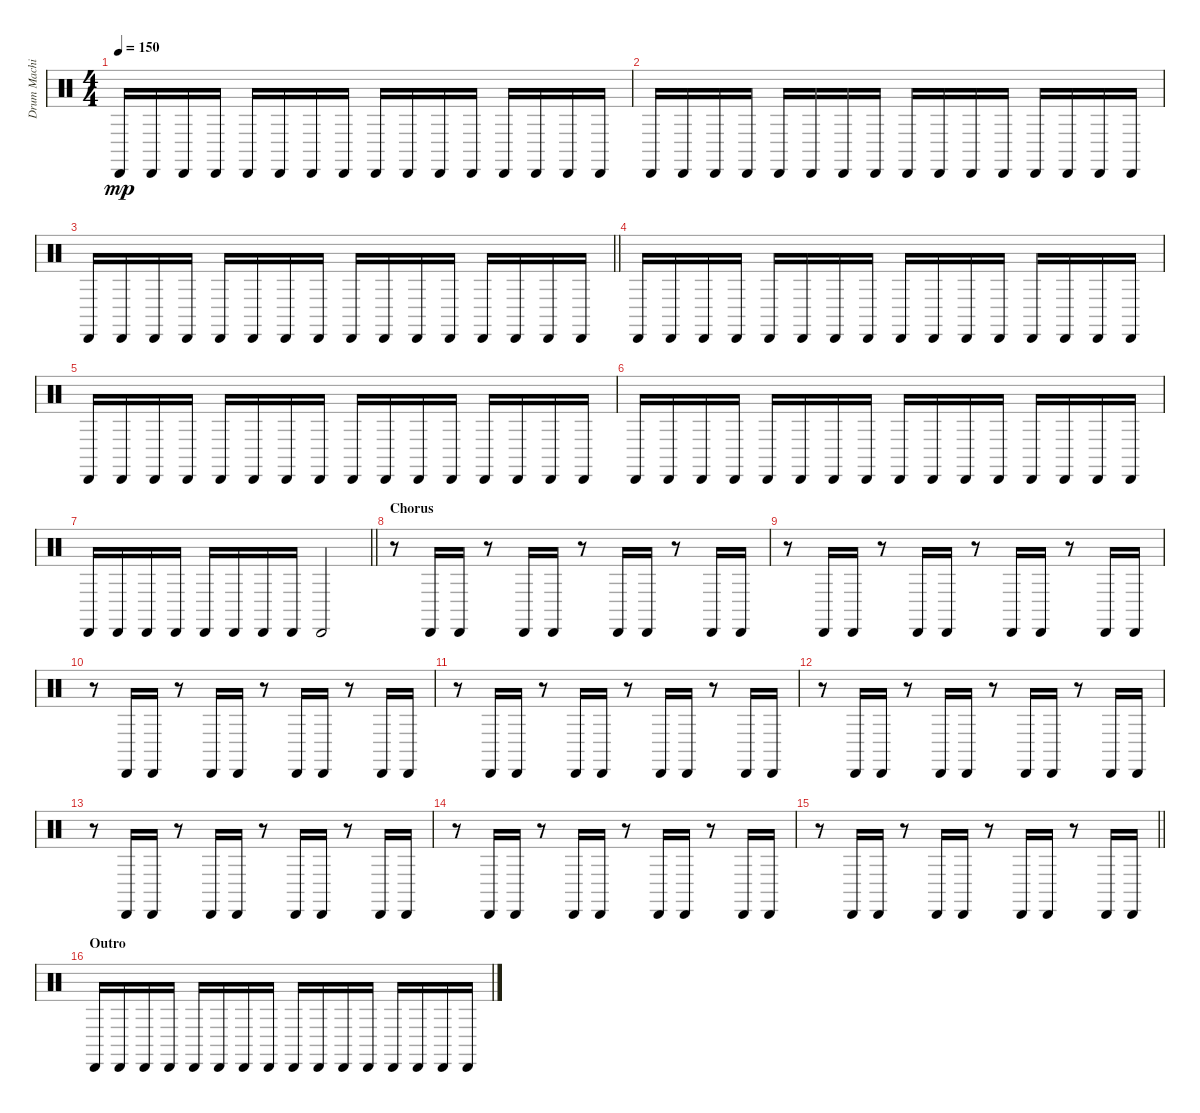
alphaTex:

\track ("Drum Machine" "Drum Machi") {instrument percussion}
\staff {score}
\articulation defaults
\ts (4 4)
\tempo 150
\clef neutral
\ks c "Cabasa (hit)".16{dy mp} "Cabasa (hit)".16 "Cabasa (hit)".16 "Cabasa (hit)".16 "Cabasa (hit)".16 "Cabasa (hit)".16 "Cabasa (hit)".16 "Cabasa (hit)".16 "Cabasa (hit)".16 "Cabasa (hit)".16 "Cabasa (hit)".16 "Cabasa (hit)".16 "Cabasa (hit)".16 "Cabasa (hit)".16 "Cabasa (hit)".16 "Cabasa (hit)".16
|
"Cabasa (hit)".16 "Cabasa (hit)".16 "Cabasa (hit)".16 "Cabasa (hit)".16 "Cabasa (hit)".16 "Cabasa (hit)".16 "Cabasa (hit)".16 "Cabasa (hit)".16 "Cabasa (hit)".16 "Cabasa (hit)".16 "Cabasa (hit)".16 "Cabasa (hit)".16 "Cabasa (hit)".16 "Cabasa (hit)".16 "Cabasa (hit)".16 "Cabasa (hit)".16 |
\barLineRight lightlight "Cabasa (hit)".16 "Cabasa (hit)".16 "Cabasa (hit)".16 "Cabasa (hit)".16 "Cabasa (hit)".16 "Cabasa (hit)".16 "Cabasa (hit)".16 "Cabasa (hit)".16 "Cabasa (hit)".16 "Cabasa (hit)".16 "Cabasa (hit)".16 "Cabasa (hit)".16 "Cabasa (hit)".16 "Cabasa (hit)".16 "Cabasa (hit)".16 "Cabasa (hit)".16
|
"Cabasa (hit)".16 "Cabasa (hit)".16 "Cabasa (hit)".16 "Cabasa (hit)".16 "Cabasa (hit)".16 "Cabasa (hit)".16 "Cabasa (hit)".16 "Cabasa (hit)".16 "Cabasa (hit)".16 "Cabasa (hit)".16 "Cabasa (hit)".16 "Cabasa (hit)".16 "Cabasa (hit)".16 "Cabasa (hit)".16 "Cabasa (hit)".16 "Cabasa (hit)".16 |
"Cabasa (hit)".16 "Cabasa (hit)".16 "Cabasa (hit)".16 "Cabasa (hit)".16 "Cabasa (hit)".16 "Cabasa (hit)".16 "Cabasa (hit)".16 "Cabasa (hit)".16 "Cabasa (hit)".16 "Cabasa (hit)".16 "Cabasa (hit)".16 "Cabasa (hit)".16 "Cabasa (hit)".16 "Cabasa (hit)".16 "Cabasa (hit)".16 "Cabasa (hit)".16 |
"Cabasa (hit)".16 "Cabasa (hit)".16 "Cabasa (hit)".16 "Cabasa (hit)".16 "Cabasa (hit)".16 "Cabasa (hit)".16 "Cabasa (hit)".16 "Cabasa (hit)".16 "Cabasa (hit)".16 "Cabasa (hit)".16 "Cabasa (hit)".16 "Cabasa (hit)".16 "Cabasa (hit)".16 "Cabasa (hit)".16 "Cabasa (hit)".16 "Cabasa (hit)".16 |
\barLineRight lightlight "Cabasa (hit)".16 "Cabasa (hit)".16 "Cabasa (hit)".16 "Cabasa (hit)".16 "Cabasa (hit)".16 "Cabasa (hit)".16 "Cabasa (hit)".16 "Cabasa (hit)".16 "Cabasa (hit)".2
|
\section ("" "Chorus")
r.8 "Cabasa (hit)".16 "Cabasa (hit)".16 r.8 "Cabasa (hit)".16 "Cabasa (hit)".16 r.8 "Cabasa (hit)".16 "Cabasa (hit)".16 r.8 "Cabasa (hit)".16 "Cabasa (hit)".16 |
r.8 "Cabasa (hit)".16 "Cabasa (hit)".16 r.8 "Cabasa (hit)".16 "Cabasa (hit)".16 r.8 "Cabasa (hit)".16 "Cabasa (hit)".16 r.8 "Cabasa (hit)".16 "Cabasa (hit)".16 |
r.8 "Cabasa (hit)".16 "Cabasa (hit)".16 r.8 "Cabasa (hit)".16 "Cabasa (hit)".16 r.8 "Cabasa (hit)".16 "Cabasa (hit)".16 r.8 "Cabasa (hit)".16 "Cabasa (hit)".16 |
r.8 "Cabasa (hit)".16 "Cabasa (hit)".16 r.8 "Cabasa (hit)".16 "Cabasa (hit)".16 r.8 "Cabasa (hit)".16 "Cabasa (hit)".16 r.8 "Cabasa (hit)".16 "Cabasa (hit)".16 |
r.8 "Cabasa (hit)".16 "Cabasa (hit)".16 r.8 "Cabasa (hit)".16 "Cabasa (hit)".16 r.8 "Cabasa (hit)".16 "Cabasa (hit)".16 r.8 "Cabasa (hit)".16 "Cabasa (hit)".16 |
r.8 "Cabasa (hit)".16 "Cabasa (hit)".16 r.8 "Cabasa (hit)".16 "Cabasa (hit)".16 r.8 "Cabasa (hit)".16 "Cabasa (hit)".16 r.8 "Cabasa (hit)".16 "Cabasa (hit)".16 |
r.8 "Cabasa (hit)".16 "Cabasa (hit)".16 r.8 "Cabasa (hit)".16 "Cabasa (hit)".16 r.8 "Cabasa (hit)".16 "Cabasa (hit)".16 r.8 "Cabasa (hit)".16 "Cabasa (hit)".16 |
\barLineRight lightlight
r.8 "Cabasa (hit)".16 "Cabasa (hit)".16 r.8 "Cabasa (hit)".16 "Cabasa (hit)".16 r.8 "Cabasa (hit)".16 "Cabasa (hit)".16 r.8 "Cabasa (hit)".16 "Cabasa (hit)".16 |
\section ("" "Outro")
"Cabasa (hit)".16 "Cabasa (hit)".16 "Cabasa (hit)".16 "Cabasa (hit)".16 "Cabasa (hit)".16 "Cabasa (hit)".16 "Cabasa (hit)".16 "Cabasa (hit)".16 "Cabasa (hit)".16 "Cabasa (hit)".16 "Cabasa (hit)".16 "Cabasa (hit)".16 "Cabasa (hit)".16 "Cabasa (hit)".16 "Cabasa (hit)".16 "Cabasa (hit)".16
